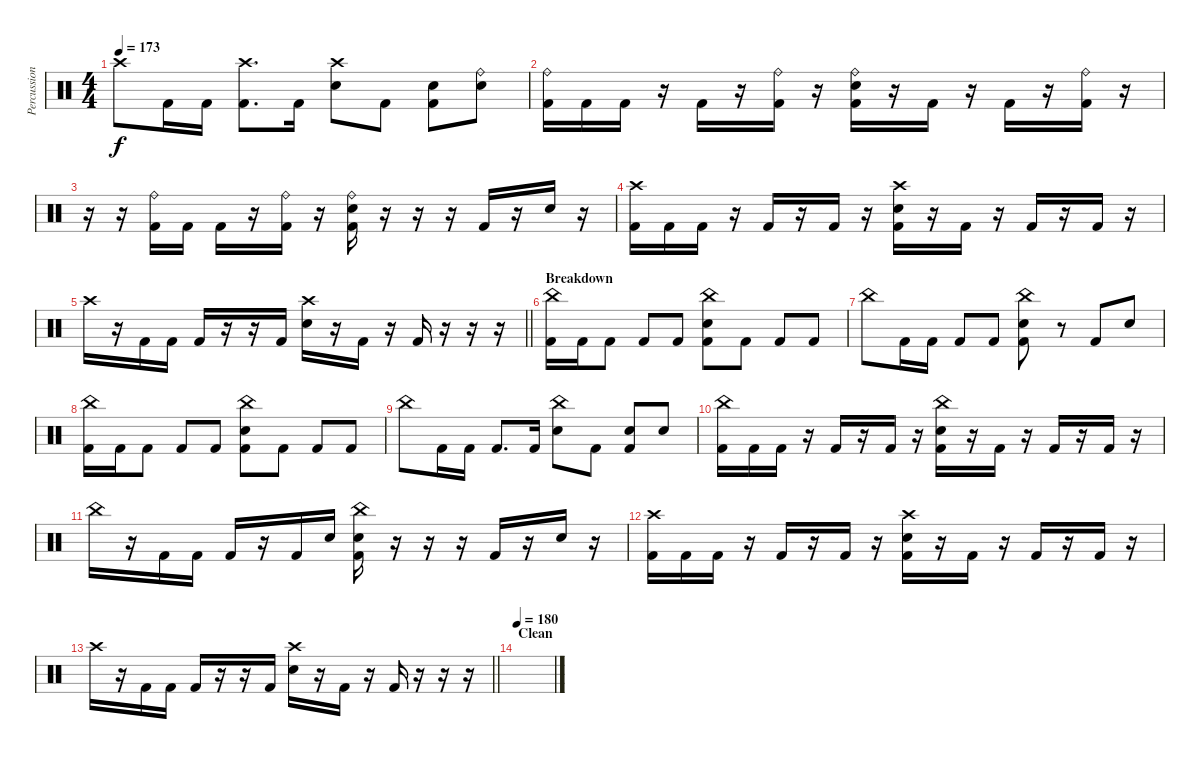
\track ("Percussion" "Percussion") {instrument percussion}
\staff {score}
\articulation defaults
\ts (4 4)
\tempo 173
\clef neutral
\ks c "Crash high (hit)".8{dy f} "Kick (hit) 2".16 "Kick (hit) 2".16
("Crash high (hit)" "Kick (hit) 2").8{d} "Kick (hit) 2".16 ("Crash high (hit)" "Electric Snare (hit)").8 "Kick (hit) 2".8 ("Electric Snare (hit)" "Kick (hit) 2").8 ("Electric Snare (hit)" "Ride (bell)").8 |
("Ride (bell)" "Kick (hit) 2").16 "Kick (hit) 2".16 "Kick (hit) 2".16 r.16 "Kick (hit) 2".16 r.16 ("Ride (bell)" "Kick (hit) 2").16 r.16 ("Ride (bell)" "Electric Snare (hit)" "Kick (hit) 2").16 r.16 "Kick (hit) 2".16 r.16 "Kick (hit) 2".16 r.16 ("Ride (bell)" "Kick (hit) 2").16 r.16 |
r.16 r.16 ("Ride (bell)" "Kick (hit) 2").16 "Kick (hit) 2".16 "Kick (hit) 2".16 r.16 ("Ride (bell)" "Kick (hit) 2").16 r.16 ("Ride (bell)" "Electric Snare (hit)" "Kick (hit) 2").16 r.16 r.16 r.16 "Kick (hit) 2".16 r.16 "Electric Snare (hit)".16 r.16 |
("Crash high (hit)" "Kick (hit) 2").16 "Kick (hit) 2".16 "Kick (hit) 2".16 r.16 "Kick (hit) 2".16 r.16 "Kick (hit) 2".16 r.16 ("Crash high (hit)" "Electric Snare (hit)" "Kick (hit) 2").16 r.16 "Kick (hit) 2".16 r.16 "Kick (hit) 2".16 r.16 "Kick (hit) 2".16 r.16 |
\barLineRight lightlight "Crash high (hit)".16
r.16 "Kick (hit) 2".16 "Kick (hit) 2".16 "Kick (hit) 2".16 r.16 r.16 "Kick (hit) 2".16 ("Crash high (hit)" "Electric Snare (hit)").16 r.16 "Kick (hit) 2".16 r.16 "Kick (hit) 2".16 r.16 r.16 r.16 |
\section ("" "Breakdown")
("China (hit)" "Kick (hit) 2").16 "Kick (hit) 2".16 "Kick (hit) 2".8 "Kick (hit) 2".8 "Kick (hit) 2".8 ("China (hit)" "Electric Snare (hit)" "Kick (hit) 2").8 "Kick (hit) 2".8 "Kick (hit) 2".8 "Kick (hit) 2".8 |
"China (hit)".8 "Kick (hit) 2".16 "Kick (hit) 2".16 "Kick (hit) 2".8 "Kick (hit) 2".8 ("China (hit)" "Electric Snare (hit)" "Kick (hit) 2").8 r.8 "Kick (hit) 2".8 "Electric Snare (hit)".8 |
("China (hit)" "Kick (hit) 2").16 "Kick (hit) 2".16 "Kick (hit) 2".8 "Kick (hit) 2".8 "Kick (hit) 2".8 ("Electric Snare (hit)" "China (hit)" "Kick (hit) 2").8 "Kick (hit) 2".8 "Kick (hit) 2".8 "Kick (hit) 2".8 |
"China (hit)".8 "Kick (hit) 2".16 "Kick (hit) 2".16 "Kick (hit) 2".8{d} "Kick (hit) 2".16 ("China (hit)" "Electric Snare (hit)").8 "Kick (hit) 2".8 ("Electric Snare (hit)" "Kick (hit) 2").8 "Electric Snare (hit)".8 |
("China (hit)" "Kick (hit) 2").16 "Kick (hit) 2".16 "Kick (hit) 2".16 r.16 "Kick (hit) 2".16 r.16 "Kick (hit) 2".16 r.16 ("China (hit)" "Electric Snare (hit)" "Kick (hit) 2").16 r.16 "Kick (hit) 2".16 r.16 "Kick (hit) 2".16 r.16 "Kick (hit) 2".16 r.16 |
"China (hit)".16 r.16 "Kick (hit) 2".16 "Kick (hit) 2".16 "Kick (hit) 2".16 r.16 "Kick (hit) 2".16 "Snare (hit)".16 ("China (hit)" "Electric Snare (hit)" "Kick (hit) 2").16 r.16 r.16 r.16 "Kick (hit) 2".16 r.16 "Electric Snare (hit)".16 r.16 |
("Crash high (hit)" "Kick (hit) 2").16 "Kick (hit) 2".16 "Kick (hit) 2".16 r.16 "Kick (hit) 2".16 r.16 "Kick (hit) 2".16 r.16 ("Crash high (hit)" "Electric Snare (hit)" "Kick (hit) 2").16 r.16 "Kick (hit) 2".16 r.16 "Kick (hit) 2".16 r.16 "Kick (hit) 2".16 r.16 |
\barLineRight lightlight "Crash high (hit)".16
r.16 "Kick (hit) 2".16 "Kick (hit) 2".16 "Kick (hit) 2".16 r.16 r.16 "Kick (hit) 2".16 ("Crash high (hit)" "Electric Snare (hit)").16 r.16 "Kick (hit) 2".16 r.16 "Kick (hit) 2".16 r.16 r.16 r.16 |
\section ("" "Clean")
\tempo 180
